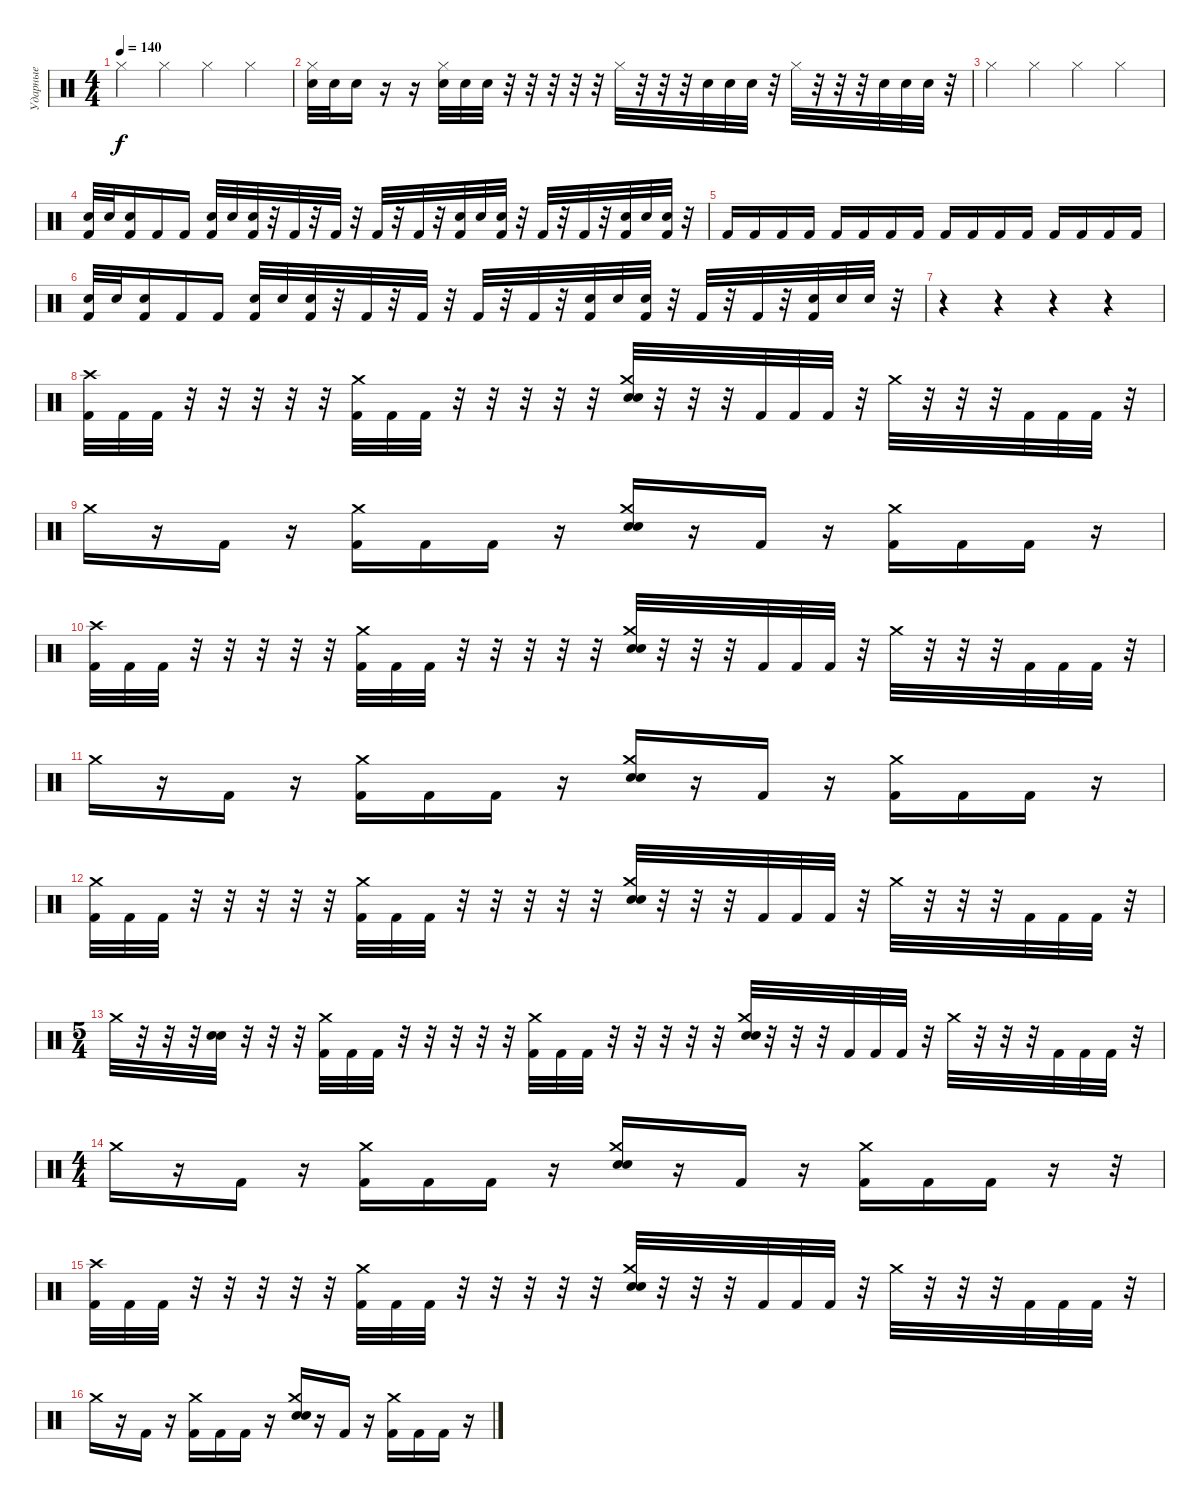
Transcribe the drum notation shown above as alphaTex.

\track ("Ударные" "Ударные") {instrument percussion}
\staff {score}
\articulation defaults
\ts (4 4)
\tempo 140
\clef neutral
\ks c "Hi-Hat (closed)".4{dy f} "Hi-Hat (closed)".4 "Hi-Hat (closed)".4 "Hi-Hat (closed)".4
|
("Hi-Hat (closed)" "Electric Snare (hit)").32 "Electric Snare (hit)".32 "Electric Snare (hit)".16 r.16 r.16 ("Hi-Hat (closed)" "Electric Snare (hit)").32 "Electric Snare (hit)".32 "Electric Snare (hit)".32 r.32 r.32 r.32 r.32 r.32 "Hi-Hat (closed)".32 r.32 r.32 r.32 "Electric Snare (hit)".32 "Electric Snare (hit)".32 "Electric Snare (hit)".32 r.32 "Hi-Hat (closed)".32 r.32 r.32 r.32 "Electric Snare (hit)".32 "Electric Snare (hit)".32 "Electric Snare (hit)".32 r.32 |
"Hi-Hat (closed)".4 "Hi-Hat (closed)".4 "Hi-Hat (closed)".4 "Hi-Hat (closed)".4 |
("Electric Snare (hit)" "Kick (hit) 2").32 "Electric Snare (hit)".32 ("Electric Snare (hit)" "Kick (hit) 2").16 "Kick (hit) 2".16 "Kick (hit) 2".16 ("Electric Snare (hit)" "Kick (hit) 2").32 "Electric Snare (hit)".32 ("Electric Snare (hit)" "Kick (hit) 2").32 r.32 "Kick (hit) 2".32 r.32 "Kick (hit) 2".32 r.32 "Kick (hit) 2".32 r.32 "Kick (hit) 2".32 r.32 ("Electric Snare (hit)" "Kick (hit) 2").32 "Electric Snare (hit)".32 ("Electric Snare (hit)" "Kick (hit) 2").32 r.32 "Kick (hit) 2".32 r.32 "Kick (hit) 2".32 r.32 ("Electric Snare (hit)" "Kick (hit) 2").32 "Electric Snare (hit)".32 ("Electric Snare (hit)" "Kick (hit) 2").32 r.32 |
"Kick (hit) 2".16 "Kick (hit) 2".16 "Kick (hit) 2".16 "Kick (hit) 2".16 "Kick (hit) 2".16 "Kick (hit) 2".16 "Kick (hit) 2".16 "Kick (hit) 2".16 "Kick (hit) 2".16 "Kick (hit) 2".16 "Kick (hit) 2".16 "Kick (hit) 2".16 "Kick (hit) 2".16 "Kick (hit) 2".16 "Kick (hit) 2".16 "Kick (hit) 2".16 |
("Electric Snare (hit)" "Kick (hit) 2").32 "Electric Snare (hit)".32 ("Electric Snare (hit)" "Kick (hit) 2").16 "Kick (hit) 2".16 "Kick (hit) 2".16 ("Electric Snare (hit)" "Kick (hit) 2").32 "Electric Snare (hit)".32 ("Electric Snare (hit)" "Kick (hit) 2").32 r.32 "Kick (hit) 2".32 r.32 "Kick (hit) 2".32 r.32 "Kick (hit) 2".32 r.32 "Kick (hit) 2".32 r.32 ("Electric Snare (hit)" "Kick (hit) 2").32 "Electric Snare (hit)".32 ("Electric Snare (hit)" "Kick (hit) 2").32 r.32 "Kick (hit) 2".32 r.32 "Kick (hit) 2".32 r.32 ("Electric Snare (hit)" "Kick (hit) 2").32 "Electric Snare (hit)".32 "Electric Snare (hit)".32 r.32 |
r.4 r.4 r.4 r.4 |
("Crash high (hit)" "Kick (hit) 2").32 "Kick (hit) 2".32 "Kick (hit) 2".32 r.32 r.32 r.32 r.32 r.32 ("Crash medium (hit)" "Kick (hit) 2").32 "Kick (hit) 2".32 "Kick (hit) 2".32 r.32 r.32 r.32 r.32 r.32 ("Crash medium (hit)" "Electric Snare (hit)" "Snare (hit) 2").32 r.32 r.32 r.32 "Kick (hit) 2".32 "Kick (hit) 2".32 "Kick (hit) 2".32 r.32 "Crash medium (hit)".32 r.32 r.32 r.32 "Kick (hit) 2".32 "Kick (hit) 2".32 "Kick (hit) 2".32 r.32 |
"Crash medium (hit)".16 r.16 "Kick (hit) 2".16 r.16 ("Crash medium (hit)" "Kick (hit) 2").16 "Kick (hit) 2".16 "Kick (hit) 2".16 r.16 ("Crash medium (hit)" "Electric Snare (hit)" "Snare (hit) 2").16 r.16 "Kick (hit) 2".16 r.16 ("Crash medium (hit)" "Kick (hit) 2").16 "Kick (hit) 2".16 "Kick (hit) 2".16 r.16 |
("Crash high (hit)" "Kick (hit) 2").32 "Kick (hit) 2".32 "Kick (hit) 2".32 r.32 r.32 r.32 r.32 r.32 ("Crash medium (hit)" "Kick (hit) 2").32 "Kick (hit) 2".32 "Kick (hit) 2".32 r.32 r.32 r.32 r.32 r.32 ("Crash medium (hit)" "Electric Snare (hit)" "Snare (hit) 2").32 r.32 r.32 r.32 "Kick (hit) 2".32 "Kick (hit) 2".32 "Kick (hit) 2".32 r.32 "Crash medium (hit)".32 r.32 r.32 r.32 "Kick (hit) 2".32 "Kick (hit) 2".32 "Kick (hit) 2".32 r.32 |
"Crash medium (hit)".16 r.16 "Kick (hit) 2".16 r.16 ("Crash medium (hit)" "Kick (hit) 2").16 "Kick (hit) 2".16 "Kick (hit) 2".16 r.16 ("Crash medium (hit)" "Electric Snare (hit)" "Snare (hit) 2").16 r.16 "Kick (hit) 2".16 r.16 ("Crash medium (hit)" "Kick (hit) 2").16 "Kick (hit) 2".16 "Kick (hit) 2".16 r.16 |
("Crash medium (hit)" "Kick (hit) 2").32 "Kick (hit) 2".32 "Kick (hit) 2".32 r.32 r.32 r.32 r.32 r.32 ("Crash medium (hit)" "Kick (hit) 2").32 "Kick (hit) 2".32 "Kick (hit) 2".32 r.32 r.32 r.32 r.32 r.32 ("Crash medium (hit)" "Electric Snare (hit)" "Snare (hit) 2").32 r.32 r.32 r.32 "Kick (hit) 2".32 "Kick (hit) 2".32 "Kick (hit) 2".32 r.32 "Crash medium (hit)".32 r.32 r.32 r.32 "Kick (hit) 2".32 "Kick (hit) 2".32 "Kick (hit) 2".32 r.32 |
\ts (5 4)
"Crash medium (hit)".32 r.32 r.32 r.32 ("Electric Snare (hit)" "Snare (hit) 2").32 r.32 r.32 r.32 ("Crash medium (hit)" "Kick (hit) 2").32 "Kick (hit) 2".32 "Kick (hit) 2".32 r.32 r.32 r.32 r.32 r.32 ("Crash medium (hit)" "Kick (hit) 2").32 "Kick (hit) 2".32 "Kick (hit) 2".32 r.32 r.32 r.32 r.32 r.32 ("Crash medium (hit)" "Electric Snare (hit)" "Snare (hit) 2").32 r.32 r.32 r.32 "Kick (hit) 2".32 "Kick (hit) 2".32 "Kick (hit) 2".32 r.32 "Crash medium (hit)".32 r.32 r.32 r.32 "Kick (hit) 2".32 "Kick (hit) 2".32 "Kick (hit) 2".32 r.32 |
\ts (4 4)
"Crash medium (hit)".16 r.16 "Kick (hit) 2".16 r.16 ("Crash medium (hit)" "Kick (hit) 2").16 "Kick (hit) 2".16 "Kick (hit) 2".16 r.16 ("Crash medium (hit)" "Electric Snare (hit)" "Snare (hit) 2").16 r.16 "Kick (hit) 2".16 r.16 ("Crash medium (hit)" "Kick (hit) 2").16 "Kick (hit) 2".16 "Kick (hit) 2".16 r.16 r.32 |
("Crash high (hit)" "Kick (hit) 2").32 "Kick (hit) 2".32 "Kick (hit) 2".32 r.32 r.32 r.32 r.32 r.32 ("Crash medium (hit)" "Kick (hit) 2").32 "Kick (hit) 2".32 "Kick (hit) 2".32 r.32 r.32 r.32 r.32 r.32 ("Crash medium (hit)" "Electric Snare (hit)" "Snare (hit) 2").32 r.32 r.32 r.32 "Kick (hit) 2".32 "Kick (hit) 2".32 "Kick (hit) 2".32 r.32 "Crash medium (hit)".32 r.32 r.32 r.32 "Kick (hit) 2".32 "Kick (hit) 2".32 "Kick (hit) 2".32 r.32 |
"Crash medium (hit)".16 r.16 "Kick (hit) 2".16 r.16 ("Crash medium (hit)" "Kick (hit) 2").16 "Kick (hit) 2".16 "Kick (hit) 2".16 r.16 ("Crash medium (hit)" "Electric Snare (hit)" "Snare (hit) 2").16 r.16 "Kick (hit) 2".16 r.16 ("Crash medium (hit)" "Kick (hit) 2").16 "Kick (hit) 2".16 "Kick (hit) 2".16 r.16
